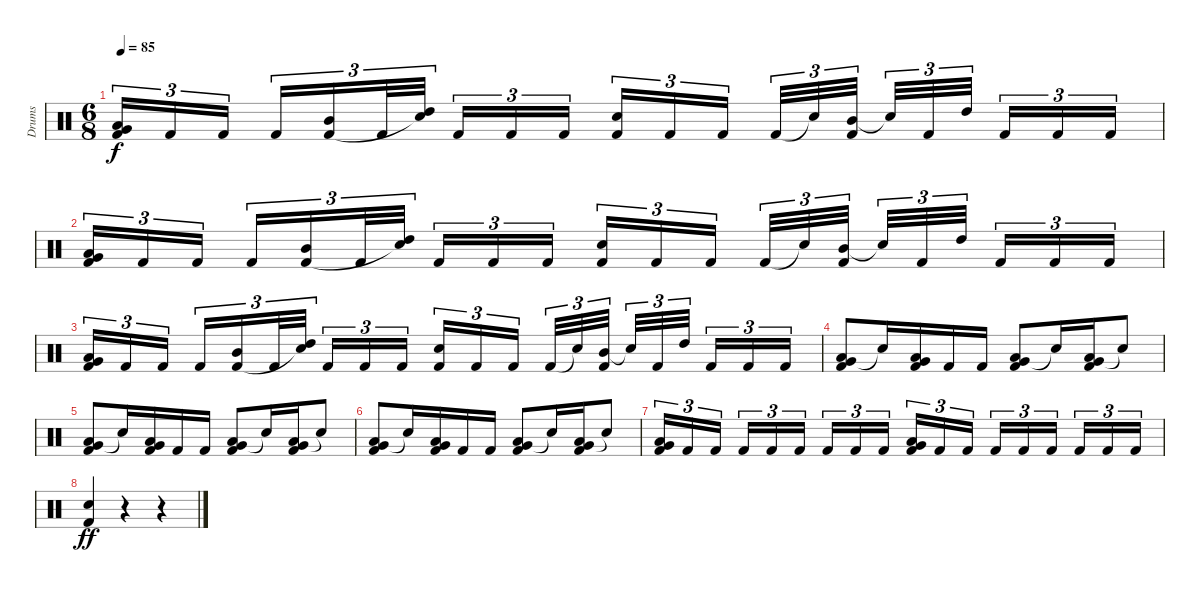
\track ("Drums" "Drums") {instrument percussion}
\staff {score}
\articulation defaults
\ts (6 8)
\tempo 85
\clef neutral
\ks c
("Very Low Tom (hit)" "Low Tom (hit)" "Kick (hit) 2").16{tu (3 2) dy f} "Kick (hit) 2".16{tu (3 2)} "Kick (hit) 2".16{tu (3 2) beam splitsecondary} "Kick (hit) 2".16{tu (3 2)} ("Mid Tom (hit)" "Kick (hit) 2").16{tu (3 2)} "Kick (hit) 2".32{tu (3 2)} ("High Tom (hit)" "Snare (hit)"{t}).32{tu (3 2) beam splitsecondary} "Kick (hit) 2".16{tu (3 2)} "Kick (hit) 2".16{tu (3 2)} "Kick (hit) 2".16{tu (3 2)} ("Snare (hit) 2" "Kick (hit) 2").16{tu (3 2)} "Kick (hit) 2".16{tu (3 2)} "Kick (hit) 2".16{tu (3 2) beam splitsecondary} "Kick (hit) 2".32{tu (3 2)} "Snare (hit)"{t}.32{tu (3 2)} ("Mid Tom (hit)" "Kick (hit) 2").32{tu (3 2) beam splitsecondary} "Snare (hit)"{t}.32{tu (3 2)} "Kick (hit) 2".32{tu (3 2)} "High Tom (hit)".32{tu (3 2) beam splitsecondary} "Kick (hit) 2".16{tu (3 2)} "Kick (hit) 2".16{tu (3 2)} "Kick (hit) 2".16{tu (3 2)} |
("Very Low Tom (hit)" "Low Tom (hit)" "Kick (hit) 2").16{tu (3 2)} "Kick (hit) 2".16{tu (3 2)} "Kick (hit) 2".16{tu (3 2) beam splitsecondary} "Kick (hit) 2".16{tu (3 2)} ("Mid Tom (hit)" "Kick (hit) 2").16{tu (3 2)} "Kick (hit) 2".32{tu (3 2)} ("High Tom (hit)" "Snare (hit)"{t}).32{tu (3 2) beam splitsecondary} "Kick (hit) 2".16{tu (3 2)} "Kick (hit) 2".16{tu (3 2)} "Kick (hit) 2".16{tu (3 2)} ("Snare (hit) 2" "Kick (hit) 2").16{tu (3 2)} "Kick (hit) 2".16{tu (3 2)} "Kick (hit) 2".16{tu (3 2) beam splitsecondary} "Kick (hit) 2".32{tu (3 2)} "Snare (hit)"{t}.32{tu (3 2)} ("Mid Tom (hit)" "Kick (hit) 2").32{tu (3 2) beam splitsecondary} "Snare (hit)"{t}.32{tu (3 2)} "Kick (hit) 2".32{tu (3 2)} "High Tom (hit)".32{tu (3 2) beam splitsecondary} "Kick (hit) 2".16{tu (3 2)} "Kick (hit) 2".16{tu (3 2)} "Kick (hit) 2".16{tu (3 2)} |
("Very Low Tom (hit)" "Low Tom (hit)" "Kick (hit) 2").16{tu (3 2)} "Kick (hit) 2".16{tu (3 2)} "Kick (hit) 2".16{tu (3 2) beam splitsecondary} "Kick (hit) 2".16{tu (3 2)} ("Mid Tom (hit)" "Kick (hit) 2").16{tu (3 2)} "Kick (hit) 2".32{tu (3 2)} ("High Tom (hit)" "Snare (hit)"{t}).32{tu (3 2) beam splitsecondary} "Kick (hit) 2".16{tu (3 2)} "Kick (hit) 2".16{tu (3 2)} "Kick (hit) 2".16{tu (3 2)} ("Snare (hit) 2" "Kick (hit) 2").16{tu (3 2)} "Kick (hit) 2".16{tu (3 2)} "Kick (hit) 2".16{tu (3 2) beam splitsecondary} "Kick (hit) 2".32{tu (3 2)} "Snare (hit)"{t}.32{tu (3 2)} ("Mid Tom (hit)" "Kick (hit) 2").32{tu (3 2) beam splitsecondary} "Snare (hit)"{t}.32{tu (3 2)} "Kick (hit) 2".32{tu (3 2)} "High Tom (hit)".32{tu (3 2) beam splitsecondary} "Kick (hit) 2".16{tu (3 2)} "Kick (hit) 2".16{tu (3 2)} "Kick (hit) 2".16{tu (3 2)} |
("Very Low Tom (hit)" "Low Tom (hit)" "Kick (hit) 2").8 "Snare (hit)"{t}.16 ("Very Low Tom (hit)" "Low Tom (hit)" "Kick (hit) 2").16 "Kick (hit) 2".16 "Kick (hit) 2".16 ("Very Low Tom (hit)" "Low Tom (hit)" "Kick (hit) 2").8 "Snare (hit)"{t}.16 ("Very Low Tom (hit)" "Low Tom (hit)" "Kick (hit) 2").16 "Snare (hit)"{t}.8 |
("Very Low Tom (hit)" "Low Tom (hit)" "Kick (hit) 2").8 "Snare (hit)"{t}.16 ("Very Low Tom (hit)" "Low Tom (hit)" "Kick (hit) 2").16 "Kick (hit) 2".16 "Kick (hit) 2".16 ("Very Low Tom (hit)" "Low Tom (hit)" "Kick (hit) 2").8 "Snare (hit)"{t}.16 ("Very Low Tom (hit)" "Low Tom (hit)" "Kick (hit) 2").16 "Snare (hit)"{t}.8 |
("Very Low Tom (hit)" "Low Tom (hit)" "Kick (hit) 2").8 "Snare (hit)"{t}.16 ("Very Low Tom (hit)" "Low Tom (hit)" "Kick (hit) 2").16 "Kick (hit) 2".16 "Kick (hit) 2".16 ("Very Low Tom (hit)" "Low Tom (hit)" "Kick (hit) 2").8 "Snare (hit)"{t}.16 ("Very Low Tom (hit)" "Low Tom (hit)" "Kick (hit) 2").16 "Snare (hit)"{t}.8 |
("Very Low Tom (hit)" "Low Tom (hit)" "Kick (hit) 2").16{tu (3 2)} "Kick (hit) 2".16{tu (3 2)} "Kick (hit) 2".16{tu (3 2) beam splitsecondary} "Kick (hit) 2".16{tu (3 2)} "Kick (hit) 2".16{tu (3 2)} "Kick (hit) 2".16{tu (3 2) beam splitsecondary} "Kick (hit) 2".16{tu (3 2)} "Kick (hit) 2".16{tu (3 2)} "Kick (hit) 2".16{tu (3 2)} ("Very Low Tom (hit)" "Low Tom (hit)" "Kick (hit) 2").16{tu (3 2)} "Kick (hit) 2".16{tu (3 2)} "Kick (hit) 2".16{tu (3 2) beam splitsecondary} "Kick (hit) 2".16{tu (3 2)} "Kick (hit) 2".16{tu (3 2)} "Kick (hit) 2".16{tu (3 2) beam splitsecondary} "Kick (hit) 2".16{tu (3 2)} "Kick (hit) 2".16{tu (3 2)} "Kick (hit) 2".16{tu (3 2)} |
("Snare (hit) 2" "Kick (hit) 2").4{dy ff} r.4 r.4
